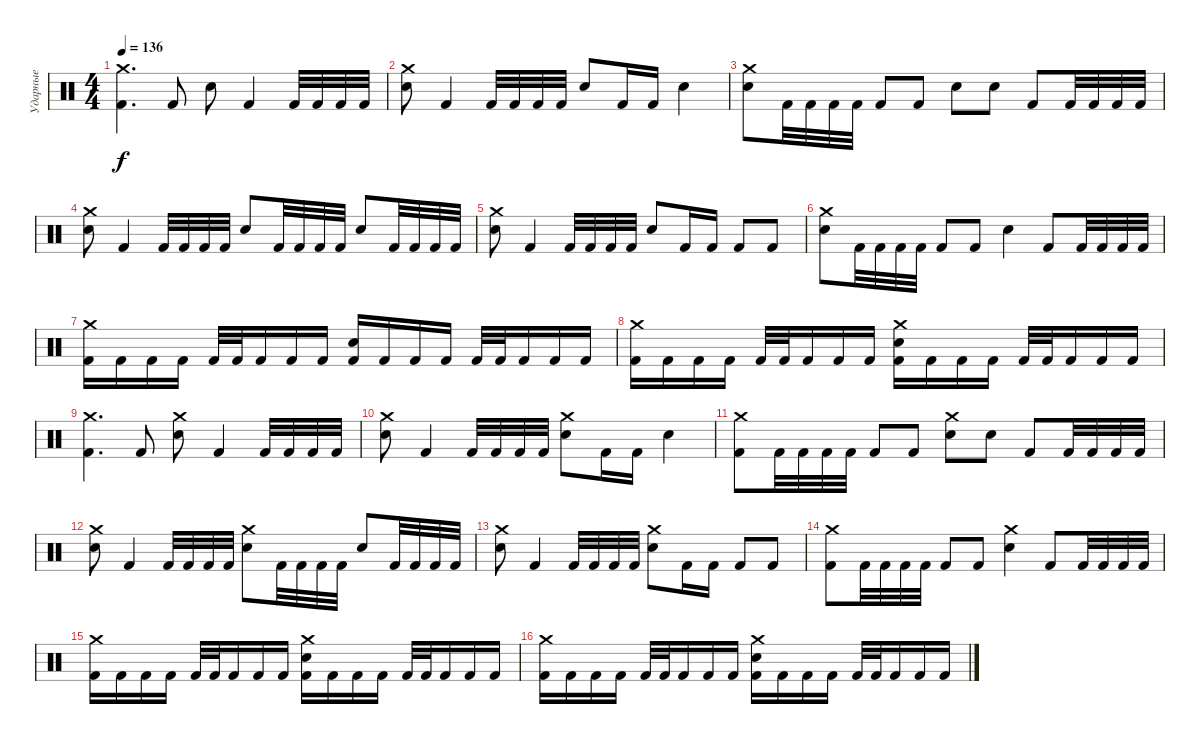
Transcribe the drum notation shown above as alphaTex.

\track ("Ударные" "Ударные") {instrument percussion}
\staff {score}
\articulation defaults
\ts (4 4)
\tempo 136
\clef neutral
\ks c
("Crash medium (hit)" "Kick (hit) 2").4{d dy f} "Kick (hit) 2".8 "Electric Snare (hit)".8 "Kick (hit) 2".4 "Kick (hit) 2".32 "Kick (hit) 2".32 "Kick (hit) 2".32 "Kick (hit) 2".32 |
("Crash medium (hit)" "Electric Snare (hit)").8 "Kick (hit) 2".4 "Kick (hit) 2".32 "Kick (hit) 2".32 "Kick (hit) 2".32 "Kick (hit) 2".32 "Electric Snare (hit)".8 "Kick (hit) 2".16 "Kick (hit) 2".16 "Electric Snare (hit)".4 |
("Crash medium (hit)" "Electric Snare (hit)").8 "Kick (hit) 2".32 "Kick (hit) 2".32 "Kick (hit) 2".32 "Kick (hit) 2".32 "Kick (hit) 2".8 "Kick (hit) 2".8 "Electric Snare (hit)".8 "Electric Snare (hit)".8 "Kick (hit) 2".8 "Kick (hit) 2".32 "Kick (hit) 2".32 "Kick (hit) 2".32 "Kick (hit) 2".32 |
("Crash medium (hit)" "Electric Snare (hit)").8 "Kick (hit) 2".4 "Kick (hit) 2".32 "Kick (hit) 2".32 "Kick (hit) 2".32 "Kick (hit) 2".32 "Electric Snare (hit)".8 "Kick (hit) 2".32 "Kick (hit) 2".32 "Kick (hit) 2".32 "Kick (hit) 2".32 "Electric Snare (hit)".8 "Kick (hit) 2".32 "Kick (hit) 2".32 "Kick (hit) 2".32 "Kick (hit) 2".32 |
("Crash medium (hit)" "Electric Snare (hit)").8 "Kick (hit) 2".4 "Kick (hit) 2".32 "Kick (hit) 2".32 "Kick (hit) 2".32 "Kick (hit) 2".32 "Electric Snare (hit)".8 "Kick (hit) 2".16 "Kick (hit) 2".16 "Kick (hit) 2".8 "Kick (hit) 2".8 |
("Crash medium (hit)" "Electric Snare (hit)").8 "Kick (hit) 2".32 "Kick (hit) 2".32 "Kick (hit) 2".32 "Kick (hit) 2".32 "Kick (hit) 2".8 "Kick (hit) 2".8 "Electric Snare (hit)".4 "Kick (hit) 2".8 "Kick (hit) 2".32 "Kick (hit) 2".32 "Kick (hit) 2".32 "Kick (hit) 2".32 |
("Crash medium (hit)" "Kick (hit) 2").16 "Kick (hit) 2".16 "Kick (hit) 2".16 "Kick (hit) 2".16 "Kick (hit) 2".32 "Kick (hit) 2".32 "Kick (hit) 2".16 "Kick (hit) 2".16 "Kick (hit) 2".16 ("Electric Snare (hit)" "Kick (hit) 2").16 "Kick (hit) 2".16 "Kick (hit) 2".16 "Kick (hit) 2".16 "Kick (hit) 2".32 "Kick (hit) 2".32 "Kick (hit) 2".16 "Kick (hit) 2".16 "Kick (hit) 2".16 |
("Crash medium (hit)" "Kick (hit) 2").16 "Kick (hit) 2".16 "Kick (hit) 2".16 "Kick (hit) 2".16 "Kick (hit) 2".32 "Kick (hit) 2".32 "Kick (hit) 2".16 "Kick (hit) 2".16 "Kick (hit) 2".16 ("Crash medium (hit)" "Electric Snare (hit)" "Kick (hit) 2").16 "Kick (hit) 2".16 "Kick (hit) 2".16 "Kick (hit) 2".16 "Kick (hit) 2".32 "Kick (hit) 2".32 "Kick (hit) 2".16 "Kick (hit) 2".16 "Kick (hit) 2".16 |
("Crash medium (hit)" "Kick (hit) 2").4{d} "Kick (hit) 2".8 ("Crash medium (hit)" "Electric Snare (hit)").8 "Kick (hit) 2".4 "Kick (hit) 2".32 "Kick (hit) 2".32 "Kick (hit) 2".32 "Kick (hit) 2".32 |
("Crash medium (hit)" "Electric Snare (hit)").8 "Kick (hit) 2".4 "Kick (hit) 2".32 "Kick (hit) 2".32 "Kick (hit) 2".32 "Kick (hit) 2".32 ("Crash medium (hit)" "Electric Snare (hit)").8 "Kick (hit) 2".16 "Kick (hit) 2".16 "Electric Snare (hit)".4 |
("Crash medium (hit)" "Kick (hit) 2").8 "Kick (hit) 2".32 "Kick (hit) 2".32 "Kick (hit) 2".32 "Kick (hit) 2".32 "Kick (hit) 2".8 "Kick (hit) 2".8 ("Crash medium (hit)" "Electric Snare (hit)").8 "Electric Snare (hit)".8 "Kick (hit) 2".8 "Kick (hit) 2".32 "Kick (hit) 2".32 "Kick (hit) 2".32 "Kick (hit) 2".32 |
("Crash medium (hit)" "Electric Snare (hit)").8 "Kick (hit) 2".4 "Kick (hit) 2".32 "Kick (hit) 2".32 "Kick (hit) 2".32 "Kick (hit) 2".32 ("Crash medium (hit)" "Electric Snare (hit)").8 "Kick (hit) 2".32 "Kick (hit) 2".32 "Kick (hit) 2".32 "Kick (hit) 2".32 "Electric Snare (hit)".8 "Kick (hit) 2".32 "Kick (hit) 2".32 "Kick (hit) 2".32 "Kick (hit) 2".32 |
("Crash medium (hit)" "Electric Snare (hit)").8 "Kick (hit) 2".4 "Kick (hit) 2".32 "Kick (hit) 2".32 "Kick (hit) 2".32 "Kick (hit) 2".32 ("Crash medium (hit)" "Electric Snare (hit)").8 "Kick (hit) 2".16 "Kick (hit) 2".16 "Kick (hit) 2".8 "Kick (hit) 2".8 |
("Crash medium (hit)" "Kick (hit) 2").8 "Kick (hit) 2".32 "Kick (hit) 2".32 "Kick (hit) 2".32 "Kick (hit) 2".32 "Kick (hit) 2".8 "Kick (hit) 2".8 ("Crash medium (hit)" "Electric Snare (hit)").4 "Kick (hit) 2".8 "Kick (hit) 2".32 "Kick (hit) 2".32 "Kick (hit) 2".32 "Kick (hit) 2".32 |
("Crash medium (hit)" "Kick (hit) 2").16 "Kick (hit) 2".16 "Kick (hit) 2".16 "Kick (hit) 2".16 "Kick (hit) 2".32 "Kick (hit) 2".32 "Kick (hit) 2".16 "Kick (hit) 2".16 "Kick (hit) 2".16 ("Crash medium (hit)" "Electric Snare (hit)" "Kick (hit) 2").16 "Kick (hit) 2".16 "Kick (hit) 2".16 "Kick (hit) 2".16 "Kick (hit) 2".32 "Kick (hit) 2".32 "Kick (hit) 2".16 "Kick (hit) 2".16 "Kick (hit) 2".16 |
("Crash medium (hit)" "Kick (hit) 2").16 "Kick (hit) 2".16 "Kick (hit) 2".16 "Kick (hit) 2".16 "Kick (hit) 2".32 "Kick (hit) 2".32 "Kick (hit) 2".16 "Kick (hit) 2".16 "Kick (hit) 2".16 ("Crash medium (hit)" "Electric Snare (hit)" "Kick (hit) 2").16 "Kick (hit) 2".16 "Kick (hit) 2".16 "Kick (hit) 2".16 "Kick (hit) 2".32 "Kick (hit) 2".32 "Kick (hit) 2".16 "Kick (hit) 2".16 "Kick (hit) 2".16
